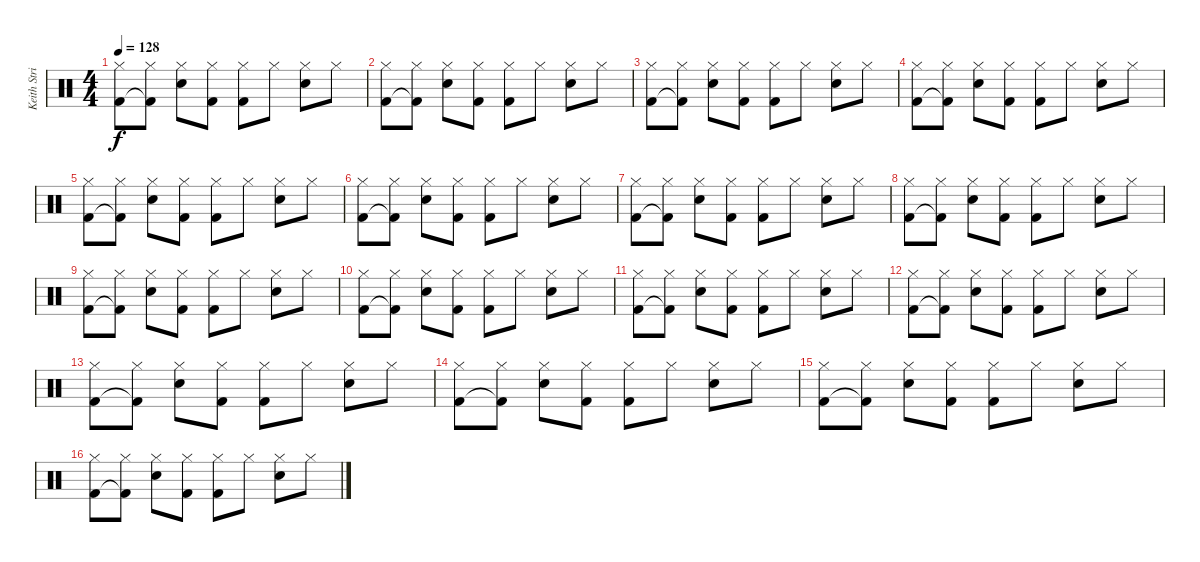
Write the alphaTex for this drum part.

\track ("Keith Strickland (drums)" "Keith Stri") {instrument percussion}
\staff {score}
\articulation defaults
\ts (4 4)
\tempo 128
\clef neutral
\ks c
("Hi-Hat (closed)" "Kick (hit) 2").8{dy f} ("Hi-Hat (closed)" "Kick (hit) 2"{t}).8 ("Hi-Hat (closed)" "Snare (hit) 2").8 ("Hi-Hat (closed)" "Kick (hit) 2").8 ("Hi-Hat (closed)" "Kick (hit) 2").8 "Hi-Hat (closed)".8 ("Hi-Hat (closed)" "Snare (hit) 2").8 "Hi-Hat (closed)".8 |
("Hi-Hat (closed)" "Kick (hit) 2").8 ("Hi-Hat (closed)" "Kick (hit) 2"{t}).8 ("Hi-Hat (closed)" "Snare (hit) 2").8 ("Hi-Hat (closed)" "Kick (hit) 2").8 ("Hi-Hat (closed)" "Kick (hit) 2").8 "Hi-Hat (closed)".8 ("Hi-Hat (closed)" "Snare (hit) 2").8 "Hi-Hat (closed)".8 |
("Hi-Hat (closed)" "Kick (hit) 2").8 ("Hi-Hat (closed)" "Kick (hit) 2"{t}).8 ("Hi-Hat (closed)" "Snare (hit) 2").8 ("Hi-Hat (closed)" "Kick (hit) 2").8 ("Hi-Hat (closed)" "Kick (hit) 2").8 "Hi-Hat (closed)".8 ("Hi-Hat (closed)" "Snare (hit) 2").8 "Hi-Hat (closed)".8 |
("Hi-Hat (closed)" "Kick (hit) 2").8 ("Hi-Hat (closed)" "Kick (hit) 2"{t}).8 ("Hi-Hat (closed)" "Snare (hit) 2").8 ("Hi-Hat (closed)" "Kick (hit) 2").8 ("Hi-Hat (closed)" "Kick (hit) 2").8 "Hi-Hat (closed)".8 ("Hi-Hat (closed)" "Snare (hit) 2").8 "Hi-Hat (closed)".8 |
("Hi-Hat (closed)" "Kick (hit) 2").8 ("Hi-Hat (closed)" "Kick (hit) 2"{t}).8 ("Hi-Hat (closed)" "Snare (hit) 2").8 ("Hi-Hat (closed)" "Kick (hit) 2").8 ("Hi-Hat (closed)" "Kick (hit) 2").8 "Hi-Hat (closed)".8 ("Hi-Hat (closed)" "Snare (hit) 2").8 "Hi-Hat (closed)".8 |
("Hi-Hat (closed)" "Kick (hit) 2").8 ("Hi-Hat (closed)" "Kick (hit) 2"{t}).8 ("Hi-Hat (closed)" "Snare (hit) 2").8 ("Hi-Hat (closed)" "Kick (hit) 2").8 ("Hi-Hat (closed)" "Kick (hit) 2").8 "Hi-Hat (closed)".8 ("Hi-Hat (closed)" "Snare (hit) 2").8 "Hi-Hat (closed)".8 |
("Hi-Hat (closed)" "Kick (hit) 2").8 ("Hi-Hat (closed)" "Kick (hit) 2"{t}).8 ("Hi-Hat (closed)" "Snare (hit) 2").8 ("Hi-Hat (closed)" "Kick (hit) 2").8 ("Hi-Hat (closed)" "Kick (hit) 2").8 "Hi-Hat (closed)".8 ("Hi-Hat (closed)" "Snare (hit) 2").8 "Hi-Hat (closed)".8 |
("Hi-Hat (closed)" "Kick (hit) 2").8 ("Hi-Hat (closed)" "Kick (hit) 2"{t}).8 ("Hi-Hat (closed)" "Snare (hit) 2").8 ("Hi-Hat (closed)" "Kick (hit) 2").8 ("Hi-Hat (closed)" "Kick (hit) 2").8 "Hi-Hat (closed)".8 ("Hi-Hat (closed)" "Snare (hit) 2").8 "Hi-Hat (closed)".8 |
("Hi-Hat (closed)" "Kick (hit) 2").8 ("Hi-Hat (closed)" "Kick (hit) 2"{t}).8 ("Hi-Hat (closed)" "Snare (hit) 2").8 ("Hi-Hat (closed)" "Kick (hit) 2").8 ("Hi-Hat (closed)" "Kick (hit) 2").8 "Hi-Hat (closed)".8 ("Hi-Hat (closed)" "Snare (hit) 2").8 "Hi-Hat (closed)".8 |
("Hi-Hat (closed)" "Kick (hit) 2").8 ("Hi-Hat (closed)" "Kick (hit) 2"{t}).8 ("Hi-Hat (closed)" "Snare (hit) 2").8 ("Hi-Hat (closed)" "Kick (hit) 2").8 ("Hi-Hat (closed)" "Kick (hit) 2").8 "Hi-Hat (closed)".8 ("Hi-Hat (closed)" "Snare (hit) 2").8 "Hi-Hat (closed)".8 |
("Hi-Hat (closed)" "Kick (hit) 2").8 ("Hi-Hat (closed)" "Kick (hit) 2"{t}).8 ("Hi-Hat (closed)" "Snare (hit) 2").8 ("Hi-Hat (closed)" "Kick (hit) 2").8 ("Hi-Hat (closed)" "Kick (hit) 2").8 "Hi-Hat (closed)".8 ("Hi-Hat (closed)" "Snare (hit) 2").8 "Hi-Hat (closed)".8 |
("Hi-Hat (closed)" "Kick (hit) 2").8 ("Hi-Hat (closed)" "Kick (hit) 2"{t}).8 ("Hi-Hat (closed)" "Snare (hit) 2").8 ("Hi-Hat (closed)" "Kick (hit) 2").8 ("Hi-Hat (closed)" "Kick (hit) 2").8 "Hi-Hat (closed)".8 ("Hi-Hat (closed)" "Snare (hit) 2").8 "Hi-Hat (closed)".8 |
("Hi-Hat (closed)" "Kick (hit) 2").8 ("Hi-Hat (closed)" "Kick (hit) 2"{t}).8 ("Hi-Hat (closed)" "Snare (hit) 2").8 ("Hi-Hat (closed)" "Kick (hit) 2").8 ("Hi-Hat (closed)" "Kick (hit) 2").8 "Hi-Hat (closed)".8 ("Hi-Hat (closed)" "Snare (hit) 2").8 "Hi-Hat (closed)".8 |
("Hi-Hat (closed)" "Kick (hit) 2").8 ("Hi-Hat (closed)" "Kick (hit) 2"{t}).8 ("Hi-Hat (closed)" "Snare (hit) 2").8 ("Hi-Hat (closed)" "Kick (hit) 2").8 ("Hi-Hat (closed)" "Kick (hit) 2").8 "Hi-Hat (closed)".8 ("Hi-Hat (closed)" "Snare (hit) 2").8 "Hi-Hat (closed)".8 |
("Hi-Hat (closed)" "Kick (hit) 2").8 ("Hi-Hat (closed)" "Kick (hit) 2"{t}).8 ("Hi-Hat (closed)" "Snare (hit) 2").8 ("Hi-Hat (closed)" "Kick (hit) 2").8 ("Hi-Hat (closed)" "Kick (hit) 2").8 "Hi-Hat (closed)".8 ("Hi-Hat (closed)" "Snare (hit) 2").8 "Hi-Hat (closed)".8 |
("Hi-Hat (closed)" "Kick (hit) 2").8 ("Hi-Hat (closed)" "Kick (hit) 2"{t}).8 ("Hi-Hat (closed)" "Snare (hit) 2").8 ("Hi-Hat (closed)" "Kick (hit) 2").8 ("Hi-Hat (closed)" "Kick (hit) 2").8 "Hi-Hat (closed)".8 ("Hi-Hat (closed)" "Snare (hit) 2").8 "Hi-Hat (closed)".8
